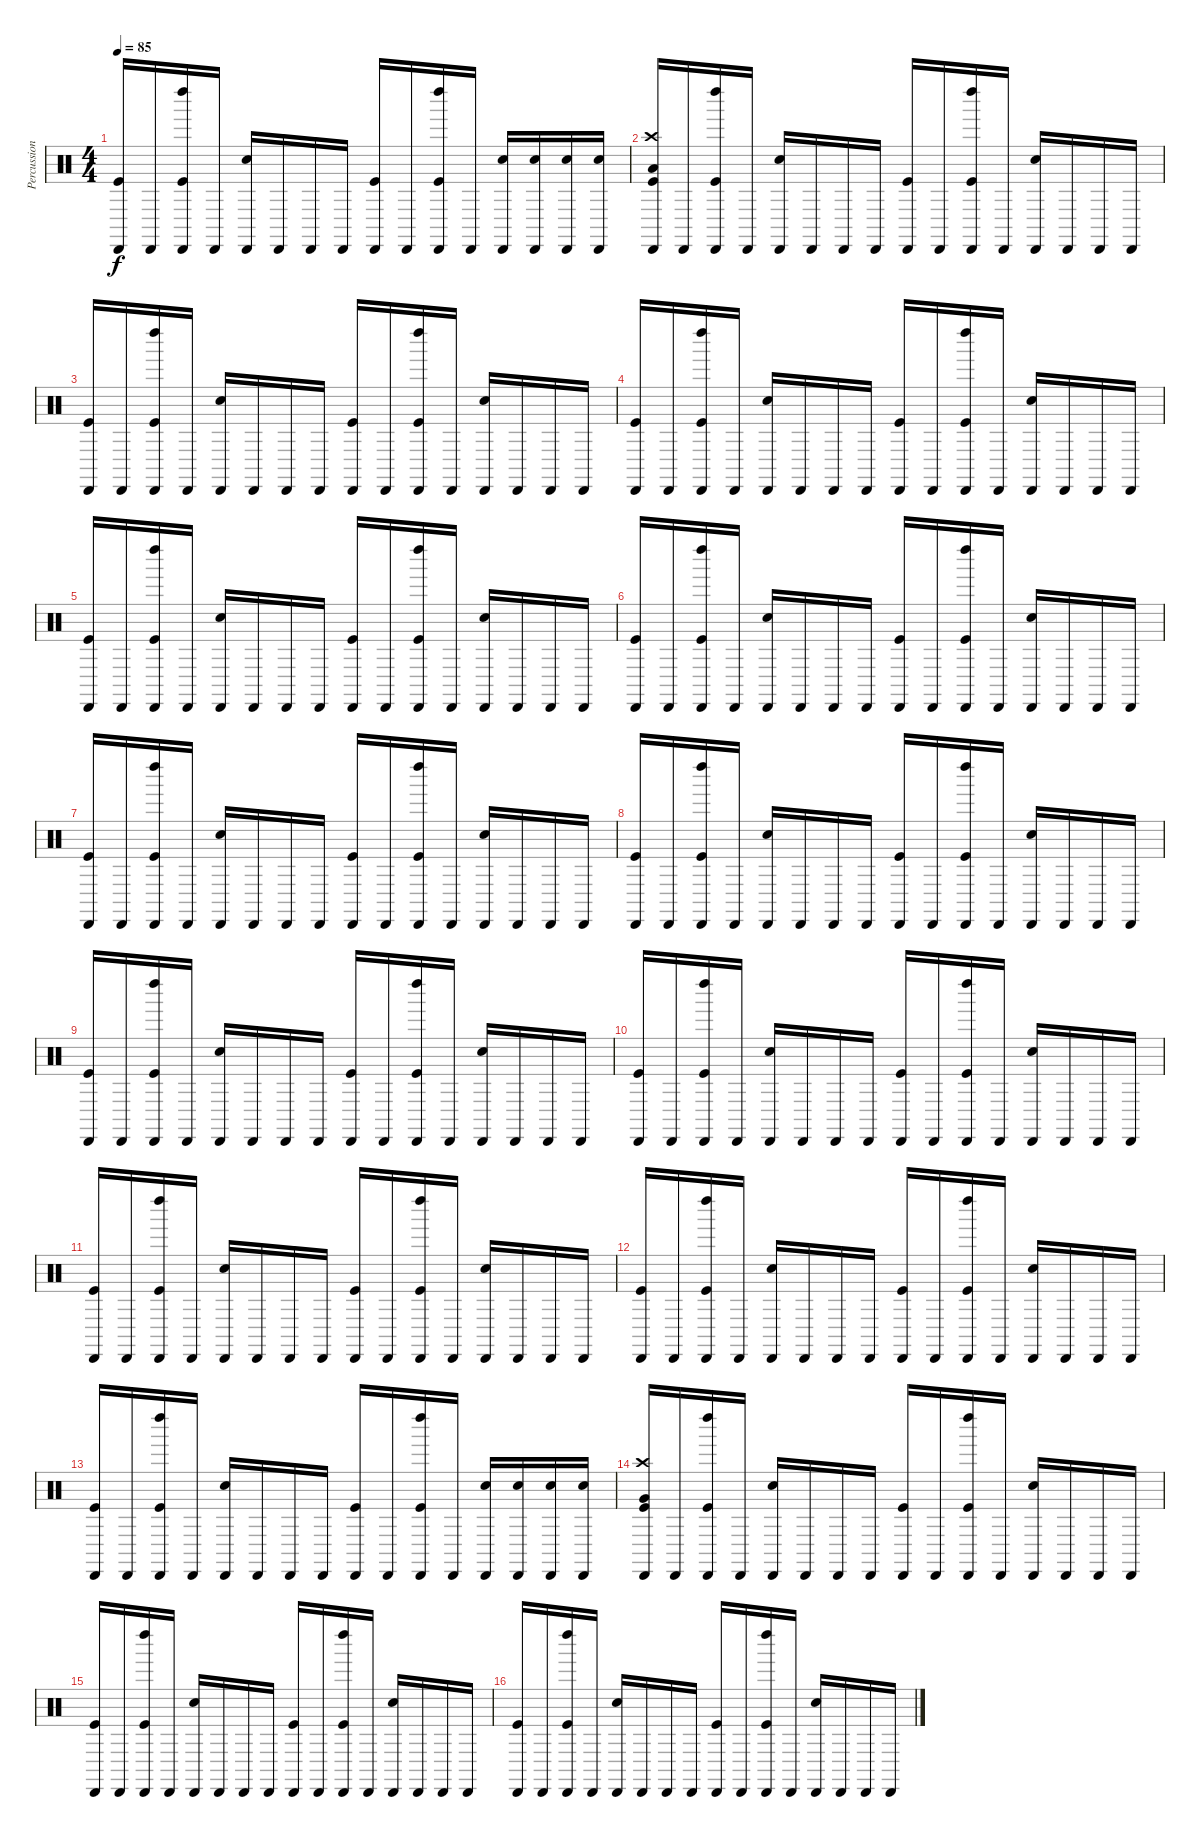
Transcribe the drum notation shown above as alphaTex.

\track ("Percussions" "Percussion") {instrument percussion}
\staff {score}
\articulation defaults
\ts (4 4)
\tempo 85
\clef neutral
\ks c
("Cabasa (hit)" "Kick (hit)").16{dy f} "Cabasa (hit)".16 ("Kick (hit)" "Cabasa (hit)" "Left Maraca (hit)").16 "Cabasa (hit)".16 ("Snare (hit) 2" "Cabasa (hit)").16 "Cabasa (hit)".16 "Cabasa (hit)".16 "Cabasa (hit)".16 ("Kick (hit)" "Cabasa (hit)").16 "Cabasa (hit)".16 ("Kick (hit)" "Cabasa (hit)" "Left Maraca (hit)").16 "Cabasa (hit)".16 ("Cabasa (hit)" "Snare (hit) 2").16 ("Cabasa (hit)" "Snare (hit) 2").16 ("Cabasa (hit)" "Snare (hit) 2").16 ("Cabasa (hit)" "Snare (hit) 2").16 |
("Cabasa (hit)" "Kick (hit)" "Low Tom (hit)" "Crash high (hit)").16 "Cabasa (hit)".16 ("Kick (hit)" "Cabasa (hit)" "Left Maraca (hit)").16 "Cabasa (hit)".16 ("Snare (hit) 2" "Cabasa (hit)").16 "Cabasa (hit)".16 "Cabasa (hit)".16 "Cabasa (hit)".16 ("Kick (hit)" "Cabasa (hit)").16 "Cabasa (hit)".16 ("Kick (hit)" "Cabasa (hit)" "Left Maraca (hit)").16 "Cabasa (hit)".16 ("Snare (hit) 2" "Cabasa (hit)").16 "Cabasa (hit)".16 "Cabasa (hit)".16 "Cabasa (hit)".16 |
("Cabasa (hit)" "Kick (hit)").16 "Cabasa (hit)".16 ("Kick (hit)" "Cabasa (hit)" "Left Maraca (hit)").16 "Cabasa (hit)".16 ("Snare (hit) 2" "Cabasa (hit)").16 "Cabasa (hit)".16 "Cabasa (hit)".16 "Cabasa (hit)".16 ("Kick (hit)" "Cabasa (hit)").16 "Cabasa (hit)".16 ("Kick (hit)" "Cabasa (hit)" "Left Maraca (hit)").16 "Cabasa (hit)".16 ("Snare (hit) 2" "Cabasa (hit)").16 "Cabasa (hit)".16 "Cabasa (hit)".16 "Cabasa (hit)".16 |
("Cabasa (hit)" "Kick (hit)").16 "Cabasa (hit)".16 ("Kick (hit)" "Cabasa (hit)" "Left Maraca (hit)").16 "Cabasa (hit)".16 ("Snare (hit) 2" "Cabasa (hit)").16 "Cabasa (hit)".16 "Cabasa (hit)".16 "Cabasa (hit)".16 ("Kick (hit)" "Cabasa (hit)").16 "Cabasa (hit)".16 ("Kick (hit)" "Cabasa (hit)" "Left Maraca (hit)").16 "Cabasa (hit)".16 ("Snare (hit) 2" "Cabasa (hit)").16 "Cabasa (hit)".16 "Cabasa (hit)".16 "Cabasa (hit)".16 |
("Cabasa (hit)" "Kick (hit)").16 "Cabasa (hit)".16 ("Kick (hit)" "Cabasa (hit)" "Left Maraca (hit)").16 "Cabasa (hit)".16 ("Snare (hit) 2" "Cabasa (hit)").16 "Cabasa (hit)".16 "Cabasa (hit)".16 "Cabasa (hit)".16 ("Kick (hit)" "Cabasa (hit)").16 "Cabasa (hit)".16 ("Kick (hit)" "Cabasa (hit)" "Left Maraca (hit)").16 "Cabasa (hit)".16 ("Snare (hit) 2" "Cabasa (hit)").16 "Cabasa (hit)".16 "Cabasa (hit)".16 "Cabasa (hit)".16 |
("Cabasa (hit)" "Kick (hit)").16 "Cabasa (hit)".16 ("Kick (hit)" "Cabasa (hit)" "Left Maraca (hit)").16 "Cabasa (hit)".16 ("Snare (hit) 2" "Cabasa (hit)").16 "Cabasa (hit)".16 "Cabasa (hit)".16 "Cabasa (hit)".16 ("Kick (hit)" "Cabasa (hit)").16 "Cabasa (hit)".16 ("Kick (hit)" "Cabasa (hit)" "Left Maraca (hit)").16 "Cabasa (hit)".16 ("Snare (hit) 2" "Cabasa (hit)").16 "Cabasa (hit)".16 "Cabasa (hit)".16 "Cabasa (hit)".16 |
("Cabasa (hit)" "Kick (hit)").16 "Cabasa (hit)".16 ("Kick (hit)" "Cabasa (hit)" "Left Maraca (hit)").16 "Cabasa (hit)".16 ("Snare (hit) 2" "Cabasa (hit)").16 "Cabasa (hit)".16 "Cabasa (hit)".16 "Cabasa (hit)".16 ("Kick (hit)" "Cabasa (hit)").16 "Cabasa (hit)".16 ("Kick (hit)" "Cabasa (hit)" "Left Maraca (hit)").16 "Cabasa (hit)".16 ("Snare (hit) 2" "Cabasa (hit)").16 "Cabasa (hit)".16 "Cabasa (hit)".16 "Cabasa (hit)".16 |
("Cabasa (hit)" "Kick (hit)").16 "Cabasa (hit)".16 ("Kick (hit)" "Cabasa (hit)" "Left Maraca (hit)").16 "Cabasa (hit)".16 ("Snare (hit) 2" "Cabasa (hit)").16 "Cabasa (hit)".16 "Cabasa (hit)".16 "Cabasa (hit)".16 ("Kick (hit)" "Cabasa (hit)").16 "Cabasa (hit)".16 ("Kick (hit)" "Cabasa (hit)" "Left Maraca (hit)").16 "Cabasa (hit)".16 ("Snare (hit) 2" "Cabasa (hit)").16 "Cabasa (hit)".16 "Cabasa (hit)".16 "Cabasa (hit)".16 |
("Cabasa (hit)" "Kick (hit)").16 "Cabasa (hit)".16 ("Kick (hit)" "Cabasa (hit)" "Left Maraca (hit)").16 "Cabasa (hit)".16 ("Snare (hit) 2" "Cabasa (hit)").16 "Cabasa (hit)".16 "Cabasa (hit)".16 "Cabasa (hit)".16 ("Kick (hit)" "Cabasa (hit)").16 "Cabasa (hit)".16 ("Kick (hit)" "Cabasa (hit)" "Left Maraca (hit)").16 "Cabasa (hit)".16 ("Snare (hit) 2" "Cabasa (hit)").16 "Cabasa (hit)".16 "Cabasa (hit)".16 "Cabasa (hit)".16 |
("Cabasa (hit)" "Kick (hit)").16 "Cabasa (hit)".16 ("Kick (hit)" "Cabasa (hit)" "Left Maraca (hit)").16 "Cabasa (hit)".16 ("Snare (hit) 2" "Cabasa (hit)").16 "Cabasa (hit)".16 "Cabasa (hit)".16 "Cabasa (hit)".16 ("Kick (hit)" "Cabasa (hit)").16 "Cabasa (hit)".16 ("Kick (hit)" "Cabasa (hit)" "Left Maraca (hit)").16 "Cabasa (hit)".16 ("Snare (hit) 2" "Cabasa (hit)").16 "Cabasa (hit)".16 "Cabasa (hit)".16 "Cabasa (hit)".16 |
("Kick (hit)" "Cabasa (hit)").16 "Cabasa (hit)".16 ("Kick (hit)" "Cabasa (hit)" "Left Maraca (hit)").16 "Cabasa (hit)".16 ("Snare (hit) 2" "Cabasa (hit)").16 "Cabasa (hit)".16 "Cabasa (hit)".16 "Cabasa (hit)".16 ("Kick (hit)" "Cabasa (hit)").16 "Cabasa (hit)".16 ("Kick (hit)" "Cabasa (hit)" "Left Maraca (hit)").16 "Cabasa (hit)".16 ("Snare (hit) 2" "Cabasa (hit)").16 "Cabasa (hit)".16 "Cabasa (hit)".16 "Cabasa (hit)".16 |
("Kick (hit)" "Cabasa (hit)").16 "Cabasa (hit)".16 ("Kick (hit)" "Cabasa (hit)" "Left Maraca (hit)").16 "Cabasa (hit)".16 ("Snare (hit) 2" "Cabasa (hit)").16 "Cabasa (hit)".16 "Cabasa (hit)".16 "Cabasa (hit)".16 ("Kick (hit)" "Cabasa (hit)").16 "Cabasa (hit)".16 ("Kick (hit)" "Cabasa (hit)" "Left Maraca (hit)").16 "Cabasa (hit)".16 ("Snare (hit) 2" "Cabasa (hit)").16 "Cabasa (hit)".16 "Cabasa (hit)".16 "Cabasa (hit)".16 |
("Cabasa (hit)" "Kick (hit)").16 "Cabasa (hit)".16 ("Kick (hit)" "Cabasa (hit)" "Left Maraca (hit)").16 "Cabasa (hit)".16 ("Snare (hit) 2" "Cabasa (hit)").16 "Cabasa (hit)".16 "Cabasa (hit)".16 "Cabasa (hit)".16 ("Kick (hit)" "Cabasa (hit)").16 "Cabasa (hit)".16 ("Kick (hit)" "Cabasa (hit)" "Left Maraca (hit)").16 "Cabasa (hit)".16 ("Cabasa (hit)" "Snare (hit) 2").16 ("Cabasa (hit)" "Snare (hit) 2").16 ("Cabasa (hit)" "Snare (hit) 2").16 ("Cabasa (hit)" "Snare (hit) 2").16 |
("Cabasa (hit)" "Kick (hit)" "Very Low Tom (hit)" "Crash high (hit)").16 "Cabasa (hit)".16 ("Kick (hit)" "Cabasa (hit)" "Left Maraca (hit)").16 "Cabasa (hit)".16 ("Snare (hit) 2" "Cabasa (hit)").16 "Cabasa (hit)".16 "Cabasa (hit)".16 "Cabasa (hit)".16 ("Kick (hit)" "Cabasa (hit)").16 "Cabasa (hit)".16 ("Kick (hit)" "Cabasa (hit)" "Left Maraca (hit)").16 "Cabasa (hit)".16 ("Snare (hit) 2" "Cabasa (hit)").16 "Cabasa (hit)".16 "Cabasa (hit)".16 "Cabasa (hit)".16 |
("Cabasa (hit)" "Kick (hit)").16 "Cabasa (hit)".16 ("Kick (hit)" "Cabasa (hit)" "Left Maraca (hit)").16 "Cabasa (hit)".16 ("Snare (hit) 2" "Cabasa (hit)").16 "Cabasa (hit)".16 "Cabasa (hit)".16 "Cabasa (hit)".16 ("Kick (hit)" "Cabasa (hit)").16 "Cabasa (hit)".16 ("Kick (hit)" "Cabasa (hit)" "Left Maraca (hit)").16 "Cabasa (hit)".16 ("Snare (hit) 2" "Cabasa (hit)").16 "Cabasa (hit)".16 "Cabasa (hit)".16 "Cabasa (hit)".16 |
("Cabasa (hit)" "Kick (hit)").16 "Cabasa (hit)".16 ("Kick (hit)" "Cabasa (hit)" "Left Maraca (hit)").16 "Cabasa (hit)".16 ("Snare (hit) 2" "Cabasa (hit)").16 "Cabasa (hit)".16 "Cabasa (hit)".16 "Cabasa (hit)".16 ("Kick (hit)" "Cabasa (hit)").16 "Cabasa (hit)".16 ("Kick (hit)" "Cabasa (hit)" "Left Maraca (hit)").16 "Cabasa (hit)".16 ("Snare (hit) 2" "Cabasa (hit)").16 "Cabasa (hit)".16 "Cabasa (hit)".16 "Cabasa (hit)".16
